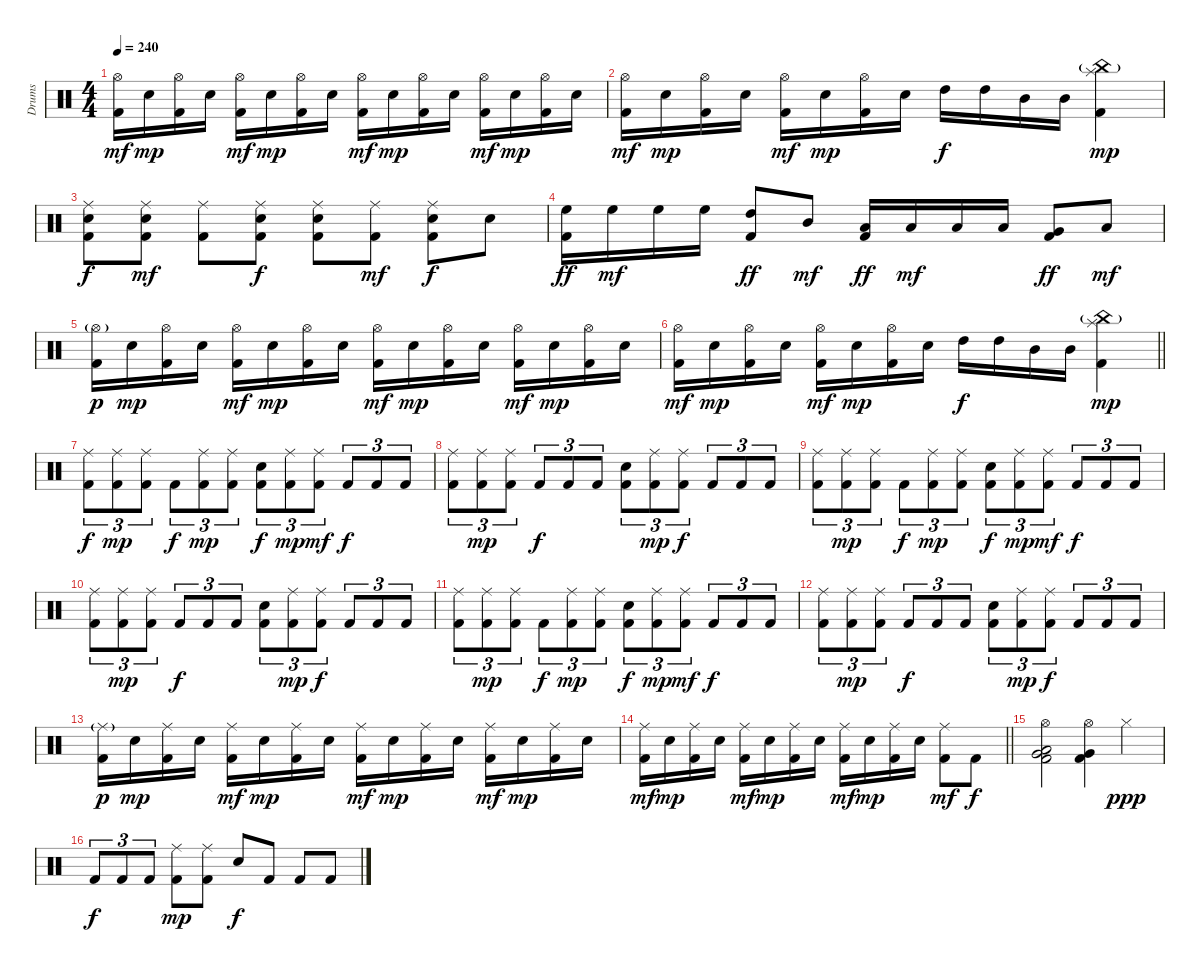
\track ("Drums" "Drums") {instrument percussion}
\staff {score}
\articulation defaults
\ts (4 4)
\tempo 240
\clef neutral
\ks c
("Hi-Hat (open)" "Kick (hit) 2").16{dy mf} "Electric Snare (hit)".16{dy mp} ("Hi-Hat (open)" "Kick (hit) 2").16 "Electric Snare (hit)".16 ("Hi-Hat (open)" "Kick (hit) 2").16{dy mf} "Electric Snare (hit)".16{dy mp} ("Hi-Hat (open)" "Kick (hit) 2").16 "Electric Snare (hit)".16 ("Hi-Hat (open)" "Kick (hit) 2").16{dy mf} "Electric Snare (hit)".16{dy mp} ("Hi-Hat (open)" "Kick (hit) 2").16 "Electric Snare (hit)".16 ("Hi-Hat (open)" "Kick (hit) 2").16{dy mf} "Electric Snare (hit)".16{dy mp} ("Hi-Hat (open)" "Kick (hit) 2").16 "Electric Snare (hit)".16 |
("Hi-Hat (open)" "Kick (hit) 2").16{dy mf} "Electric Snare (hit)".16{dy mp} ("Hi-Hat (open)" "Kick (hit) 2").16 "Electric Snare (hit)".16 ("Hi-Hat (open)" "Kick (hit) 2").16{dy mf} "Electric Snare (hit)".16{dy mp} ("Hi-Hat (open)" "Kick (hit) 2").16 "Electric Snare (hit)".16 "High Tom (hit)".16{dy f} "High Tom (hit)".16 "Mid Tom (hit)".16 "Mid Tom (hit)".16 ("Splash (hit)" "China (hit)"{g} "Kick (hit) 2").4{dy mp} |
("Ride (middle)" "Electric Snare (hit)" "Kick (hit) 2").8{dy f} ("Ride (middle)" "Electric Snare (hit)" "Kick (hit) 2").8{dy mf} ("Ride (middle)" "Kick (hit) 2").8 ("Ride (middle)" "Electric Snare (hit)" "Kick (hit) 2").8{dy f} ("Ride (middle)" "Electric Snare (hit)" "Kick (hit) 2").8 ("Ride (middle)" "Kick (hit) 2").8{dy mf} ("Ride (middle)" "Electric Snare (hit)" "Kick (hit) 2").8{dy f} "Electric Snare (hit)".8 |
("High Floor Tom (hit)" "Kick (hit) 2").16{dy ff} "High Floor Tom (hit)".16{dy mf} "High Floor Tom (hit)".16 "High Floor Tom (hit)".16 ("High Tom (hit)" "Kick (hit) 2").8{dy ff} "Mid Tom (hit)".8{dy mf} ("Low Tom (hit)" "Kick (hit) 2").16{dy ff} "Low Tom (hit)".16{dy mf} "Low Tom (hit)".16 "Low Tom (hit)".16 ("Very Low Tom (hit)" "Kick (hit) 2").8{dy ff} "Low Floor Tom (hit)".8{dy mf} |
("Hi-Hat (open)"{g} "Kick (hit) 2").16{dy p} "Electric Snare (hit)".16{dy mp} ("Hi-Hat (open)" "Kick (hit) 2").16 "Electric Snare (hit)".16 ("Hi-Hat (open)" "Kick (hit) 2").16{dy mf} "Electric Snare (hit)".16{dy mp} ("Hi-Hat (open)" "Kick (hit) 2").16 "Electric Snare (hit)".16 ("Hi-Hat (open)" "Kick (hit) 2").16{dy mf} "Electric Snare (hit)".16{dy mp} ("Hi-Hat (open)" "Kick (hit) 2").16 "Electric Snare (hit)".16 ("Hi-Hat (open)" "Kick (hit) 2").16{dy mf} "Electric Snare (hit)".16{dy mp} ("Hi-Hat (open)" "Kick (hit) 2").16 "Electric Snare (hit)".16 |
\barLineRight lightlight
("Hi-Hat (open)" "Kick (hit) 2").16{dy mf} "Electric Snare (hit)".16{dy mp} ("Hi-Hat (open)" "Kick (hit) 2").16 "Electric Snare (hit)".16 ("Hi-Hat (open)" "Kick (hit) 2").16{dy mf} "Electric Snare (hit)".16{dy mp} ("Hi-Hat (open)" "Kick (hit) 2").16 "Electric Snare (hit)".16 "High Tom (hit)".16{dy f} "High Tom (hit)".16 "Mid Tom (hit)".16 "Mid Tom (hit)".16 ("Splash (hit)" "China (hit)"{g} "Kick (hit) 2").4{dy mp} |
("Ride (middle)" "Kick (hit) 2").8{tu (3 2) dy f} ("Ride (middle)" "Kick (hit) 2").8{tu (3 2) dy mp} ("Ride (middle)" "Kick (hit) 2").8{tu (3 2)} "Kick (hit) 2".8{tu (3 2) dy f} ("Ride (middle)" "Kick (hit) 2").8{tu (3 2) dy mp} ("Ride (middle)" "Kick (hit) 2").8{tu (3 2)} ("Electric Snare (hit)" "Kick (hit) 2").8{tu (3 2) dy f} ("Ride (middle)" "Kick (hit) 2").8{tu (3 2) dy mp} ("Ride (middle)" "Kick (hit) 2").8{tu (3 2) dy mf} "Kick (hit) 2".8{tu (3 2) dy f} "Kick (hit) 2".8{tu (3 2)} "Kick (hit) 2".8{tu (3 2)} |
("Ride (middle)" "Kick (hit) 2").8{tu (3 2)} ("Ride (middle)" "Kick (hit) 2").8{tu (3 2) dy mp} ("Ride (middle)" "Kick (hit) 2").8{tu (3 2)} "Kick (hit) 2".8{tu (3 2) dy f} "Kick (hit) 2".8{tu (3 2)} "Kick (hit) 2".8{tu (3 2)} ("Electric Snare (hit)" "Kick (hit) 2").8{tu (3 2)} ("Ride (middle)" "Kick (hit) 2").8{tu (3 2) dy mp} ("Ride (middle)" "Kick (hit) 2").8{tu (3 2) dy f} "Kick (hit) 2".8{tu (3 2)} "Kick (hit) 2".8{tu (3 2)} "Kick (hit) 2".8{tu (3 2)} |
("Ride (middle)" "Kick (hit) 2").8{tu (3 2)} ("Ride (middle)" "Kick (hit) 2").8{tu (3 2) dy mp} ("Ride (middle)" "Kick (hit) 2").8{tu (3 2)} "Kick (hit) 2".8{tu (3 2) dy f} ("Ride (middle)" "Kick (hit) 2").8{tu (3 2) dy mp} ("Ride (middle)" "Kick (hit) 2").8{tu (3 2)} ("Electric Snare (hit)" "Kick (hit) 2").8{tu (3 2) dy f} ("Ride (middle)" "Kick (hit) 2").8{tu (3 2) dy mp} ("Ride (middle)" "Kick (hit) 2").8{tu (3 2) dy mf} "Kick (hit) 2".8{tu (3 2) dy f} "Kick (hit) 2".8{tu (3 2)} "Kick (hit) 2".8{tu (3 2)} |
("Ride (middle)" "Kick (hit) 2").8{tu (3 2)} ("Ride (middle)" "Kick (hit) 2").8{tu (3 2) dy mp} ("Ride (middle)" "Kick (hit) 2").8{tu (3 2)} "Kick (hit) 2".8{tu (3 2) dy f} "Kick (hit) 2".8{tu (3 2)} "Kick (hit) 2".8{tu (3 2)} ("Electric Snare (hit)" "Kick (hit) 2").8{tu (3 2)} ("Ride (middle)" "Kick (hit) 2").8{tu (3 2) dy mp} ("Ride (middle)" "Kick (hit) 2").8{tu (3 2) dy f} "Kick (hit) 2".8{tu (3 2)} "Kick (hit) 2".8{tu (3 2)} "Kick (hit) 2".8{tu (3 2)} |
("Ride (middle)" "Kick (hit) 2").8{tu (3 2)} ("Ride (middle)" "Kick (hit) 2").8{tu (3 2) dy mp} ("Ride (middle)" "Kick (hit) 2").8{tu (3 2)} "Kick (hit) 2".8{tu (3 2) dy f} ("Ride (middle)" "Kick (hit) 2").8{tu (3 2) dy mp} ("Ride (middle)" "Kick (hit) 2").8{tu (3 2)} ("Electric Snare (hit)" "Kick (hit) 2").8{tu (3 2) dy f} ("Ride (middle)" "Kick (hit) 2").8{tu (3 2) dy mp} ("Ride (middle)" "Kick (hit) 2").8{tu (3 2) dy mf} "Kick (hit) 2".8{tu (3 2) dy f} "Kick (hit) 2".8{tu (3 2)} "Kick (hit) 2".8{tu (3 2)} |
("Ride (middle)" "Kick (hit) 2").8{tu (3 2)} ("Ride (middle)" "Kick (hit) 2").8{tu (3 2) dy mp} ("Ride (middle)" "Kick (hit) 2").8{tu (3 2)} "Kick (hit) 2".8{tu (3 2) dy f} "Kick (hit) 2".8{tu (3 2)} "Kick (hit) 2".8{tu (3 2)} ("Electric Snare (hit)" "Kick (hit) 2").8{tu (3 2)} ("Ride (middle)" "Kick (hit) 2").8{tu (3 2) dy mp} ("Ride (middle)" "Kick (hit) 2").8{tu (3 2) dy f} "Kick (hit) 2".8{tu (3 2)} "Kick (hit) 2".8{tu (3 2)} "Kick (hit) 2".8{tu (3 2)} |
("Ride (middle)"{g} "Kick (hit) 2").16{dy p} "Electric Snare (hit)".16{dy mp} ("Ride (middle)" "Kick (hit) 2").16 "Electric Snare (hit)".16 ("Ride (middle)" "Kick (hit) 2").16{dy mf} "Electric Snare (hit)".16{dy mp} ("Ride (middle)" "Kick (hit) 2").16 "Electric Snare (hit)".16 ("Ride (middle)" "Kick (hit) 2").16{dy mf} "Electric Snare (hit)".16{dy mp} ("Ride (middle)" "Kick (hit) 2").16 "Electric Snare (hit)".16 ("Ride (middle)" "Kick (hit) 2").16{dy mf} "Electric Snare (hit)".16{dy mp} ("Ride (middle)" "Kick (hit) 2").16 "Electric Snare (hit)".16 |
\barLineRight lightlight
("Ride (middle)" "Kick (hit) 2").16{dy mf} "Electric Snare (hit)".16{dy mp} ("Ride (middle)" "Kick (hit) 2").16 "Electric Snare (hit)".16 ("Ride (middle)" "Kick (hit) 2").16{dy mf} "Electric Snare (hit)".16{dy mp} ("Ride (middle)" "Kick (hit) 2").16 "Electric Snare (hit)".16 ("Ride (middle)" "Kick (hit) 2").16{dy mf} "Electric Snare (hit)".16{dy mp} ("Ride (middle)" "Kick (hit) 2").16 "Electric Snare (hit)".16 ("Ride (middle)" "Kick (hit) 2").8{dy mf} "Kick (hit) 2".8{dy f} |
("Hi-Hat (open)" "Low Tom (hit)" "Very Low Tom (hit)" "Kick (hit) 2").2 ("Hi-Hat (open)" "Very Low Tom (hit)" "Kick (hit) 2").4 "Hi-Hat (closed)".4{dy ppp} |
"Kick (hit) 2".8{tu (3 2) dy f} "Kick (hit) 2".8{tu (3 2)} "Kick (hit) 2".8{tu (3 2)} ("Ride (middle)" "Kick (hit) 2").8{dy mp} ("Ride (middle)" "Kick (hit) 2").8 "Electric Snare (hit)".8{dy f} "Kick (hit) 2".8 "Kick (hit) 2".8 "Kick (hit) 2".8
